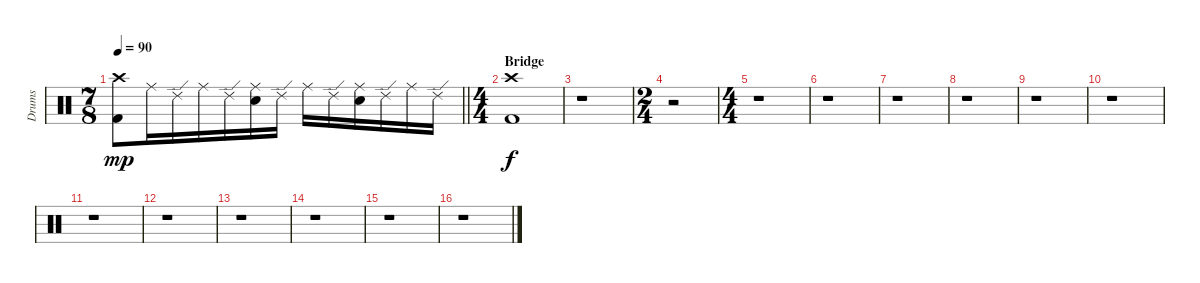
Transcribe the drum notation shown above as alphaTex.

\track ("Drums" "Drums") {instrument percussion}
\staff {score}
\articulation defaults
\ts (7 8)
\tempo 90
\clef neutral
\barLineRight lightlight
\ks c
("Crash high (hit)" "Kick (hit) 2").8{dy mp} "Ride (middle)".16 "Ride (edge) 2".16 "Ride (middle)".16 "Ride (edge) 2".16 ("Ride (middle)" "Electric Snare (hit)").16 "Ride (edge) 2".16 "Ride (middle)".16 "Ride (edge) 2".16 ("Ride (middle)" "Electric Snare (hit)").16 "Ride (edge) 2".16 "Ride (middle)".16 "Ride (edge) 2".16 |
\ts (4 4)
\section ("" "Bridge")
("Crash high (hit)" "Kick (hit) 2").1{dy f} |
r.1 |
\ts (2 4)
r.2 |
\ts (4 4)
r.1 |
r.1 |
r.1 |
r.1 |
r.1 |
r.1 |
r.1 |
r.1 |
r.1 |
r.1 |
r.1 |
r.1
